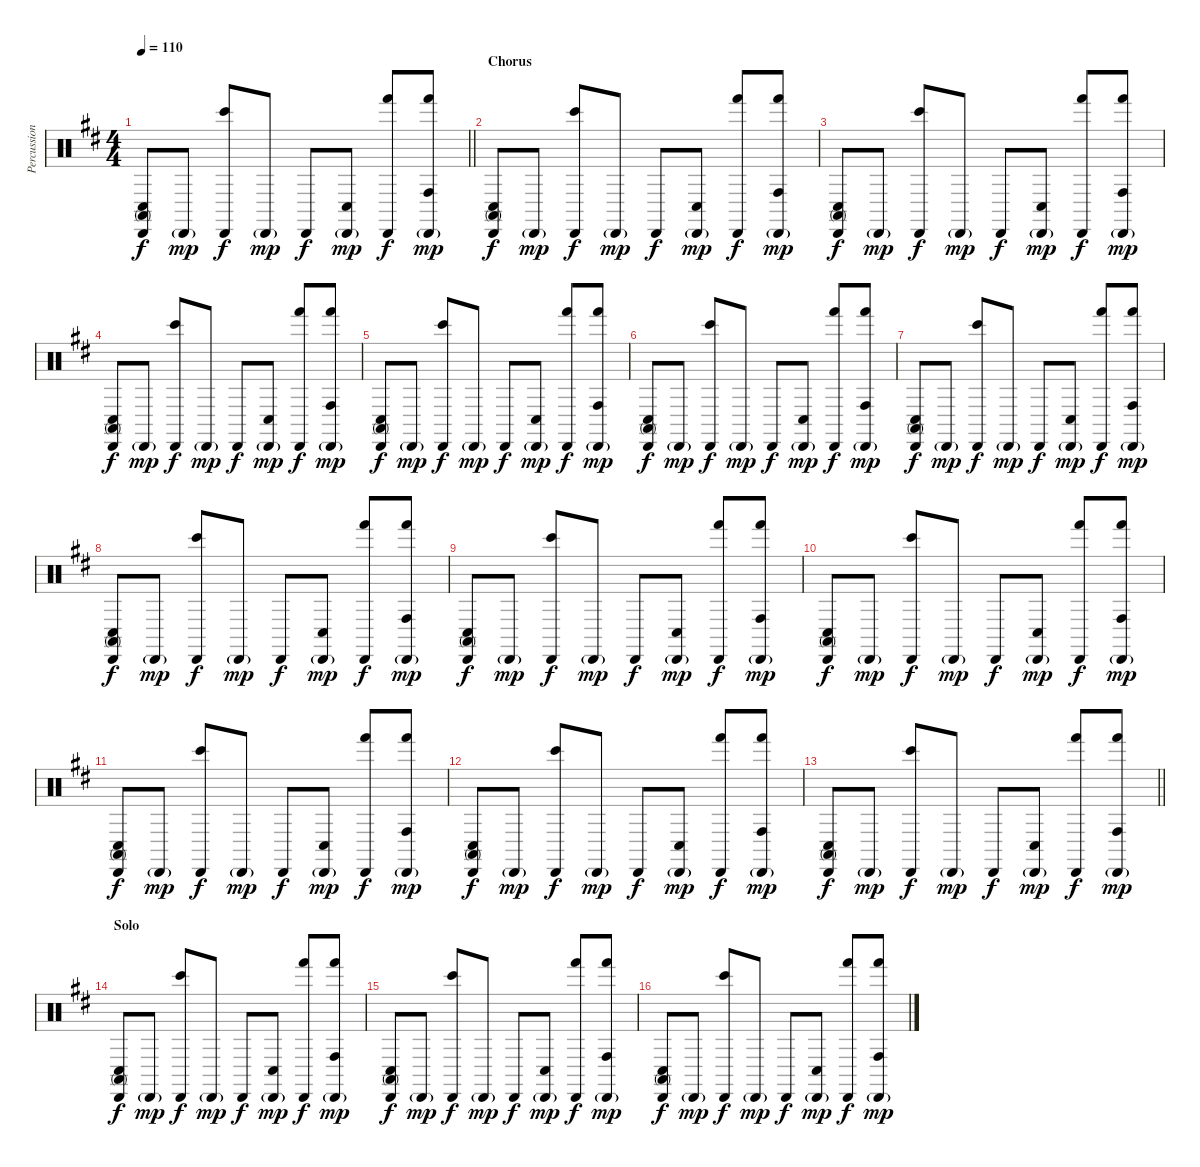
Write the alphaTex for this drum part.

\track ("Percussions" "Percussion") {instrument percussion}
\staff {score}
\articulation defaults
\ts (4 4)
\tempo 110
\clef neutral
\barLineRight lightlight
\ks d
("Cabasa (hit)" "Conga high (mute)" "Conga low (hit)").8{dy f} "Cabasa (hit)"{g}.8{dy mp} ("Cabasa (hit)" "Bongo High (hit)").8{dy f} "Cabasa (hit)"{g}.8{dy mp} "Cabasa (hit)".8{dy f} ("Cabasa (hit)"{g} "Conga low (hit)").8{dy mp} ("Cabasa (hit)" "Hand (hit)").8{dy f} ("Cabasa (hit)"{g} "Hand (hit)" "Conga high (hit)").8{dy mp} |
\section ("" "Chorus")
("Cabasa (hit)" "Conga high (mute)" "Conga low (hit)").8{dy f} "Cabasa (hit)"{g}.8{dy mp} ("Cabasa (hit)" "Bongo High (hit)").8{dy f} "Cabasa (hit)"{g}.8{dy mp} "Cabasa (hit)".8{dy f} ("Cabasa (hit)"{g} "Conga low (hit)").8{dy mp} ("Cabasa (hit)" "Hand (hit)").8{dy f} ("Cabasa (hit)"{g} "Hand (hit)" "Conga high (hit)").8{dy mp} |
("Cabasa (hit)" "Conga high (mute)" "Conga low (hit)").8{dy f} "Cabasa (hit)"{g}.8{dy mp} ("Cabasa (hit)" "Bongo High (hit)").8{dy f} "Cabasa (hit)"{g}.8{dy mp} "Cabasa (hit)".8{dy f} ("Cabasa (hit)"{g} "Conga low (hit)").8{dy mp} ("Cabasa (hit)" "Hand (hit)").8{dy f} ("Cabasa (hit)"{g} "Hand (hit)" "Conga high (hit)").8{dy mp} |
("Cabasa (hit)" "Conga high (mute)" "Conga low (hit)").8{dy f} "Cabasa (hit)"{g}.8{dy mp} ("Cabasa (hit)" "Bongo High (hit)").8{dy f} "Cabasa (hit)"{g}.8{dy mp} "Cabasa (hit)".8{dy f} ("Cabasa (hit)"{g} "Conga low (hit)").8{dy mp} ("Cabasa (hit)" "Hand (hit)").8{dy f} ("Cabasa (hit)"{g} "Hand (hit)" "Conga high (hit)").8{dy mp} |
("Cabasa (hit)" "Conga high (mute)" "Conga low (hit)").8{dy f} "Cabasa (hit)"{g}.8{dy mp} ("Cabasa (hit)" "Bongo High (hit)").8{dy f} "Cabasa (hit)"{g}.8{dy mp} "Cabasa (hit)".8{dy f} ("Cabasa (hit)"{g} "Conga low (hit)").8{dy mp} ("Cabasa (hit)" "Hand (hit)").8{dy f} ("Cabasa (hit)"{g} "Hand (hit)" "Conga high (hit)").8{dy mp} |
("Cabasa (hit)" "Conga high (mute)" "Conga low (hit)").8{dy f} "Cabasa (hit)"{g}.8{dy mp} ("Cabasa (hit)" "Bongo High (hit)").8{dy f} "Cabasa (hit)"{g}.8{dy mp} "Cabasa (hit)".8{dy f} ("Cabasa (hit)"{g} "Conga low (hit)").8{dy mp} ("Cabasa (hit)" "Hand (hit)").8{dy f} ("Cabasa (hit)"{g} "Hand (hit)" "Conga high (hit)").8{dy mp} |
("Cabasa (hit)" "Conga high (mute)" "Conga low (hit)").8{dy f} "Cabasa (hit)"{g}.8{dy mp} ("Cabasa (hit)" "Bongo High (hit)").8{dy f} "Cabasa (hit)"{g}.8{dy mp} "Cabasa (hit)".8{dy f} ("Cabasa (hit)"{g} "Conga low (hit)").8{dy mp} ("Cabasa (hit)" "Hand (hit)").8{dy f} ("Cabasa (hit)"{g} "Hand (hit)" "Conga high (hit)").8{dy mp} |
("Cabasa (hit)" "Conga high (mute)" "Conga low (hit)").8{dy f} "Cabasa (hit)"{g}.8{dy mp} ("Cabasa (hit)" "Bongo High (hit)").8{dy f} "Cabasa (hit)"{g}.8{dy mp} "Cabasa (hit)".8{dy f} ("Cabasa (hit)"{g} "Conga low (hit)").8{dy mp} ("Cabasa (hit)" "Hand (hit)").8{dy f} ("Cabasa (hit)"{g} "Hand (hit)" "Conga high (hit)").8{dy mp} |
("Cabasa (hit)" "Conga high (mute)" "Conga low (hit)").8{dy f} "Cabasa (hit)"{g}.8{dy mp} ("Cabasa (hit)" "Bongo High (hit)").8{dy f} "Cabasa (hit)"{g}.8{dy mp} "Cabasa (hit)".8{dy f} ("Cabasa (hit)"{g} "Conga low (hit)").8{dy mp} ("Cabasa (hit)" "Hand (hit)").8{dy f} ("Cabasa (hit)"{g} "Hand (hit)" "Conga high (hit)").8{dy mp} |
("Cabasa (hit)" "Conga high (mute)" "Conga low (hit)").8{dy f} "Cabasa (hit)"{g}.8{dy mp} ("Cabasa (hit)" "Bongo High (hit)").8{dy f} "Cabasa (hit)"{g}.8{dy mp} "Cabasa (hit)".8{dy f} ("Cabasa (hit)"{g} "Conga low (hit)").8{dy mp} ("Cabasa (hit)" "Hand (hit)").8{dy f} ("Cabasa (hit)"{g} "Hand (hit)" "Conga high (hit)").8{dy mp} |
("Cabasa (hit)" "Conga high (mute)" "Conga low (hit)").8{dy f} "Cabasa (hit)"{g}.8{dy mp} ("Cabasa (hit)" "Bongo High (hit)").8{dy f} "Cabasa (hit)"{g}.8{dy mp} "Cabasa (hit)".8{dy f} ("Cabasa (hit)"{g} "Conga low (hit)").8{dy mp} ("Cabasa (hit)" "Hand (hit)").8{dy f} ("Cabasa (hit)"{g} "Hand (hit)" "Conga high (hit)").8{dy mp} |
("Cabasa (hit)" "Conga high (mute)" "Conga low (hit)").8{dy f} "Cabasa (hit)"{g}.8{dy mp} ("Cabasa (hit)" "Bongo High (hit)").8{dy f} "Cabasa (hit)"{g}.8{dy mp} "Cabasa (hit)".8{dy f} ("Cabasa (hit)"{g} "Conga low (hit)").8{dy mp} ("Cabasa (hit)" "Hand (hit)").8{dy f} ("Cabasa (hit)"{g} "Hand (hit)" "Conga high (hit)").8{dy mp} |
\barLineRight lightlight
("Cabasa (hit)" "Conga high (mute)" "Conga low (hit)").8{dy f} "Cabasa (hit)"{g}.8{dy mp} ("Cabasa (hit)" "Bongo High (hit)").8{dy f} "Cabasa (hit)"{g}.8{dy mp} "Cabasa (hit)".8{dy f} ("Cabasa (hit)"{g} "Conga low (hit)").8{dy mp} ("Cabasa (hit)" "Hand (hit)").8{dy f} ("Cabasa (hit)"{g} "Hand (hit)" "Conga high (hit)").8{dy mp} |
\section ("" "Solo")
("Cabasa (hit)" "Conga high (mute)" "Conga low (hit)").8{dy f} "Cabasa (hit)"{g}.8{dy mp} ("Cabasa (hit)" "Bongo High (hit)").8{dy f} "Cabasa (hit)"{g}.8{dy mp} "Cabasa (hit)".8{dy f} ("Cabasa (hit)"{g} "Conga low (hit)").8{dy mp} ("Cabasa (hit)" "Hand (hit)").8{dy f} ("Cabasa (hit)"{g} "Hand (hit)" "Conga high (hit)").8{dy mp} |
("Cabasa (hit)" "Conga high (mute)" "Conga low (hit)").8{dy f} "Cabasa (hit)"{g}.8{dy mp} ("Cabasa (hit)" "Bongo High (hit)").8{dy f} "Cabasa (hit)"{g}.8{dy mp} "Cabasa (hit)".8{dy f} ("Cabasa (hit)"{g} "Conga low (hit)").8{dy mp} ("Cabasa (hit)" "Hand (hit)").8{dy f} ("Cabasa (hit)"{g} "Hand (hit)" "Conga high (hit)").8{dy mp} |
("Cabasa (hit)" "Conga high (mute)" "Conga low (hit)").8{dy f} "Cabasa (hit)"{g}.8{dy mp} ("Cabasa (hit)" "Bongo High (hit)").8{dy f} "Cabasa (hit)"{g}.8{dy mp} "Cabasa (hit)".8{dy f} ("Cabasa (hit)"{g} "Conga low (hit)").8{dy mp} ("Cabasa (hit)" "Hand (hit)").8{dy f} ("Cabasa (hit)"{g} "Hand (hit)" "Conga high (hit)").8{dy mp}
